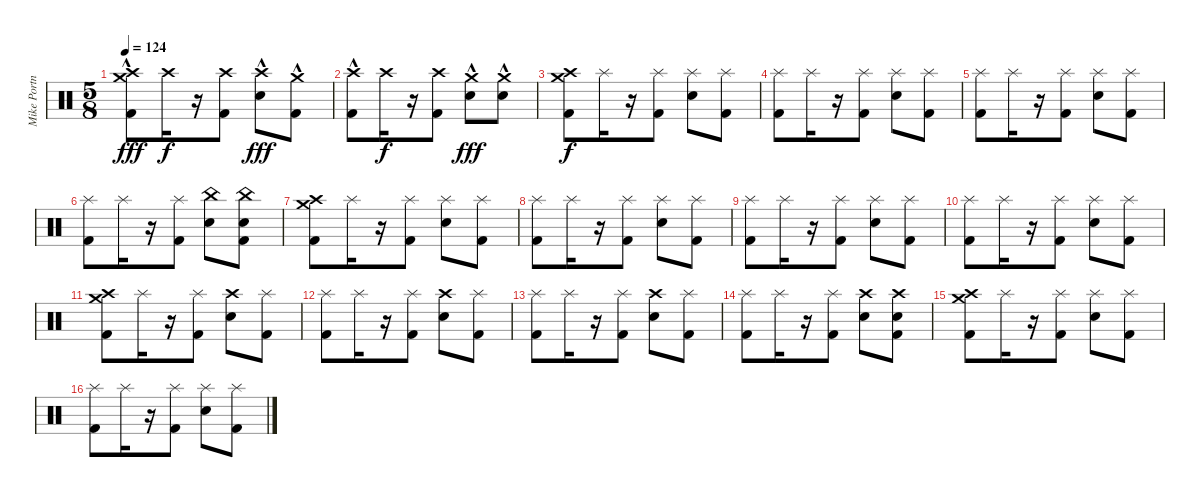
\track ("Mike Portnoy Drums" "Mike Portn") {instrument percussion}
\staff {score}
\articulation defaults
\ts (5 8)
\tempo 124
\clef neutral
\ks c
("Crash medium (hit)"{hac} "Crash high (hit)"{hac} "Kick (hit) 2").8{dy fff} "Crash high (hit)".16{dy f} r.16 ("Crash high (hit)" "Kick (hit) 2").8 ("Crash high (hit)" "Electric Snare (hit)"{hac}).8{dy fff} ("Crash medium (hit)"{hac} "Kick (hit) 2").8 |
("Crash high (hit)"{hac} "Kick (hit) 2").8 "Crash high (hit)".16{dy f} r.16 ("Crash high (hit)" "Kick (hit) 2").8 ("Crash medium (hit)" "Electric Snare (hit)"{hac}).8{dy fff} ("Crash medium (hit)"{hac} "Electric Snare (hit)"{hac}).8 |
("Crash medium (hit)" "Crash high (hit)" "Kick (hit) 2").8{dy f} "Splash (hit)".16 r.16 ("Splash (hit)" "Kick (hit) 2").8 ("Splash (hit)" "Electric Snare (hit)").8 ("Splash (hit)" "Kick (hit) 2").8 |
("Splash (hit)" "Kick (hit) 2").8 "Splash (hit)".16 r.16 ("Splash (hit)" "Kick (hit) 2").8 ("Splash (hit)" "Electric Snare (hit)").8 ("Splash (hit)" "Kick (hit) 2").8 |
("Splash (hit)" "Kick (hit) 2").8 "Splash (hit)".16 r.16 ("Splash (hit)" "Kick (hit) 2").8 ("Splash (hit)" "Electric Snare (hit)").8 ("Splash (hit)" "Kick (hit) 2").8 |
("Splash (hit)" "Kick (hit) 2").8 "Splash (hit)".16 r.16 ("Splash (hit)" "Kick (hit) 2").8 ("China (hit)" "Electric Snare (hit)").8 ("China (hit)" "Electric Snare (hit)" "Kick (hit) 2").8 |
("Crash medium (hit)" "Crash high (hit)" "Kick (hit) 2").8 "Splash (hit)".16 r.16 ("Splash (hit)" "Kick (hit) 2").8 ("Splash (hit)" "Electric Snare (hit)").8 ("Splash (hit)" "Kick (hit) 2").8 |
("Splash (hit)" "Kick (hit) 2").8 "Splash (hit)".16 r.16 ("Splash (hit)" "Kick (hit) 2").8 ("Splash (hit)" "Electric Snare (hit)").8 ("Splash (hit)" "Kick (hit) 2").8 |
("Splash (hit)" "Kick (hit) 2").8 "Splash (hit)".16 r.16 ("Splash (hit)" "Kick (hit) 2").8 ("Splash (hit)" "Electric Snare (hit)").8 ("Splash (hit)" "Kick (hit) 2").8 |
("Splash (hit)" "Kick (hit) 2").8 "Splash (hit)".16 r.16 ("Splash (hit)" "Kick (hit) 2").8 ("Splash (hit)" "Electric Snare (hit)").8 ("Splash (hit)" "Kick (hit) 2").8 |
("Crash medium (hit)" "Crash high (hit)" "Kick (hit) 2").8 "Splash (hit)".16 r.16 ("Splash (hit)" "Kick (hit) 2").8 ("Crash high (hit)" "Electric Snare (hit)").8 ("Splash (hit)" "Kick (hit) 2").8 |
("Splash (hit)" "Kick (hit) 2").8 "Splash (hit)".16 r.16 ("Splash (hit)" "Kick (hit) 2").8 ("Crash high (hit)" "Electric Snare (hit)").8 ("Splash (hit)" "Kick (hit) 2").8 |
("Splash (hit)" "Kick (hit) 2").8 "Splash (hit)".16 r.16 ("Splash (hit)" "Kick (hit) 2").8 ("Crash high (hit)" "Electric Snare (hit)").8 ("Splash (hit)" "Kick (hit) 2").8 |
("Splash (hit)" "Kick (hit) 2").8 "Splash (hit)".16 r.16 ("Splash (hit)" "Kick (hit) 2").8 ("Crash high (hit)" "Electric Snare (hit)").8 ("Crash high (hit)" "Electric Snare (hit)" "Kick (hit) 2").8 |
("Crash medium (hit)" "Crash high (hit)" "Kick (hit) 2").8 "Splash (hit)".16 r.16 ("Splash (hit)" "Kick (hit) 2").8 ("Splash (hit)" "Electric Snare (hit)").8 ("Splash (hit)" "Kick (hit) 2").8 |
("Splash (hit)" "Kick (hit) 2").8 "Splash (hit)".16 r.16 ("Splash (hit)" "Kick (hit) 2").8 ("Splash (hit)" "Electric Snare (hit)").8 ("Splash (hit)" "Kick (hit) 2").8
